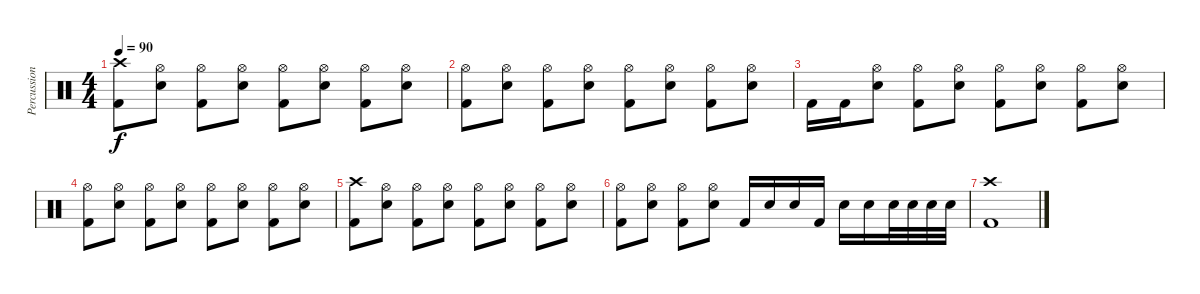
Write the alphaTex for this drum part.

\track ("Percussion" "Percussion") {instrument percussion}
\staff {score}
\articulation defaults
\ts (4 4)
\tempo 90
\clef neutral
\ks c
("Crash high (hit)" "Kick (hit) 2").8{dy f} ("Hi-Hat (open)" "Snare (hit) 2").8 ("Hi-Hat (open)" "Kick (hit) 2").8 ("Hi-Hat (open)" "Snare (hit) 2").8 ("Hi-Hat (open)" "Kick (hit) 2").8 ("Hi-Hat (open)" "Snare (hit) 2").8 ("Hi-Hat (open)" "Kick (hit) 2").8 ("Hi-Hat (open)" "Snare (hit) 2").8 |
("Hi-Hat (open)" "Kick (hit) 2").8 ("Hi-Hat (open)" "Snare (hit) 2").8 ("Hi-Hat (open)" "Kick (hit) 2").8 ("Hi-Hat (open)" "Snare (hit) 2").8 ("Hi-Hat (open)" "Kick (hit) 2").8 ("Hi-Hat (open)" "Snare (hit) 2").8 ("Hi-Hat (open)" "Kick (hit) 2").8 ("Hi-Hat (open)" "Snare (hit) 2").8 |
"Kick (hit) 2".16 "Kick (hit) 2".16 ("Hi-Hat (open)" "Snare (hit) 2").8 ("Hi-Hat (open)" "Kick (hit) 2").8 ("Hi-Hat (open)" "Snare (hit) 2").8 ("Hi-Hat (open)" "Kick (hit) 2").8 ("Hi-Hat (open)" "Snare (hit) 2").8 ("Hi-Hat (open)" "Kick (hit) 2").8 ("Hi-Hat (open)" "Snare (hit) 2").8 |
("Hi-Hat (open)" "Kick (hit) 2").8 ("Hi-Hat (open)" "Snare (hit) 2").8 ("Hi-Hat (open)" "Kick (hit) 2").8 ("Hi-Hat (open)" "Snare (hit) 2").8 ("Hi-Hat (open)" "Kick (hit) 2").8 ("Hi-Hat (open)" "Snare (hit) 2").8 ("Hi-Hat (open)" "Kick (hit) 2").8 ("Hi-Hat (open)" "Snare (hit) 2").8 |
("Crash high (hit)" "Kick (hit) 2").8 ("Hi-Hat (open)" "Snare (hit) 2").8 ("Hi-Hat (open)" "Kick (hit) 2").8 ("Hi-Hat (open)" "Snare (hit) 2").8 ("Hi-Hat (open)" "Kick (hit) 2").8 ("Hi-Hat (open)" "Snare (hit) 2").8 ("Hi-Hat (open)" "Kick (hit) 2").8 ("Hi-Hat (open)" "Snare (hit) 2").8 |
("Hi-Hat (open)" "Kick (hit) 2").8 ("Hi-Hat (open)" "Snare (hit) 2").8 ("Hi-Hat (open)" "Kick (hit) 2").8 ("Hi-Hat (open)" "Snare (hit) 2").8 "Kick (hit) 2".16 "Snare (hit) 2".16 "Snare (hit) 2".16 "Kick (hit) 2".16 "Snare (hit) 2".16 "Snare (hit) 2".16 "Snare (hit) 2".32 "Snare (hit) 2".32 "Snare (hit) 2".32 "Snare (hit) 2".32 |
("Crash high (hit)" "Kick (hit) 2").1
